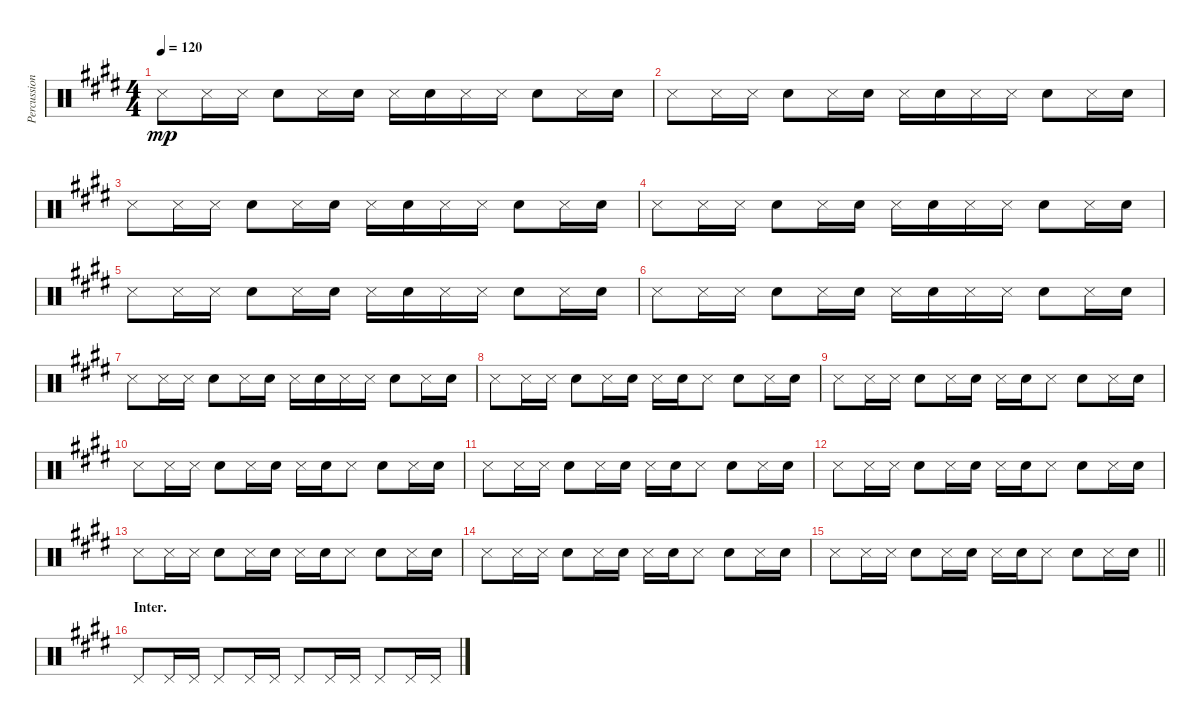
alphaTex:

\track ("Percussion (Tainaka Ritsu)" "Percussion") {instrument percussion}
\staff {score}
\articulation defaults
\ts (4 4)
\tempo 120
\clef neutral
\ks e "Snare (side stick) 3".8{dy mp} "Snare (side stick) 3".16 "Snare (side stick) 3".16 "Snare (hit) 2".8 "Snare (side stick) 3".16 "Snare (hit) 2".16 "Snare (side stick) 3".16 "Snare (hit) 2".16 "Snare (side stick) 3".16 "Snare (side stick) 3".16 "Snare (hit) 2".8 "Snare (side stick) 3".16 "Snare (hit) 2".16
|
"Snare (side stick) 3".8 "Snare (side stick) 3".16 "Snare (side stick) 3".16 "Snare (hit) 2".8 "Snare (side stick) 3".16 "Snare (hit) 2".16 "Snare (side stick) 3".16 "Snare (hit) 2".16 "Snare (side stick) 3".16 "Snare (side stick) 3".16 "Snare (hit) 2".8 "Snare (side stick) 3".16 "Snare (hit) 2".16 |
"Snare (side stick) 3".8 "Snare (side stick) 3".16 "Snare (side stick) 3".16 "Snare (hit) 2".8 "Snare (side stick) 3".16 "Snare (hit) 2".16 "Snare (side stick) 3".16 "Snare (hit) 2".16 "Snare (side stick) 3".16 "Snare (side stick) 3".16 "Snare (hit) 2".8 "Snare (side stick) 3".16 "Snare (hit) 2".16 |
"Snare (side stick) 3".8 "Snare (side stick) 3".16 "Snare (side stick) 3".16 "Snare (hit) 2".8 "Snare (side stick) 3".16 "Snare (hit) 2".16 "Snare (side stick) 3".16 "Snare (hit) 2".16 "Snare (side stick) 3".16 "Snare (side stick) 3".16 "Snare (hit) 2".8 "Snare (side stick) 3".16 "Snare (hit) 2".16 |
"Snare (side stick) 3".8 "Snare (side stick) 3".16 "Snare (side stick) 3".16 "Snare (hit) 2".8 "Snare (side stick) 3".16 "Snare (hit) 2".16 "Snare (side stick) 3".16 "Snare (hit) 2".16 "Snare (side stick) 3".16 "Snare (side stick) 3".16 "Snare (hit) 2".8 "Snare (side stick) 3".16 "Snare (hit) 2".16 |
"Snare (side stick) 3".8 "Snare (side stick) 3".16 "Snare (side stick) 3".16 "Snare (hit) 2".8 "Snare (side stick) 3".16 "Snare (hit) 2".16 "Snare (side stick) 3".16 "Snare (hit) 2".16 "Snare (side stick) 3".16 "Snare (side stick) 3".16 "Snare (hit) 2".8 "Snare (side stick) 3".16 "Snare (hit) 2".16 |
"Snare (side stick) 3".8 "Snare (side stick) 3".16 "Snare (side stick) 3".16 "Snare (hit) 2".8 "Snare (side stick) 3".16 "Snare (hit) 2".16 "Snare (side stick) 3".16 "Snare (hit) 2".16 "Snare (side stick) 3".16 "Snare (side stick) 3".16 "Snare (hit) 2".8 "Snare (side stick) 3".16 "Snare (hit) 2".16 |
"Snare (side stick) 3".8 "Snare (side stick) 3".16 "Snare (side stick) 3".16 "Snare (hit) 2".8 "Snare (side stick) 3".16 "Snare (hit) 2".16 "Snare (side stick) 3".16 "Snare (hit) 2".16 "Snare (side stick) 3".8 "Snare (hit) 2".8 "Snare (side stick) 3".16 "Snare (hit) 2".16 |
"Snare (side stick) 3".8 "Snare (side stick) 3".16 "Snare (side stick) 3".16 "Snare (hit) 2".8 "Snare (side stick) 3".16 "Snare (hit) 2".16 "Snare (side stick) 3".16 "Snare (hit) 2".16 "Snare (side stick) 3".8 "Snare (hit) 2".8 "Snare (side stick) 3".16 "Snare (hit) 2".16 |
"Snare (side stick) 3".8 "Snare (side stick) 3".16 "Snare (side stick) 3".16 "Snare (hit) 2".8 "Snare (side stick) 3".16 "Snare (hit) 2".16 "Snare (side stick) 3".16 "Snare (hit) 2".16 "Snare (side stick) 3".8 "Snare (hit) 2".8 "Snare (side stick) 3".16 "Snare (hit) 2".16 |
"Snare (side stick) 3".8 "Snare (side stick) 3".16 "Snare (side stick) 3".16 "Snare (hit) 2".8 "Snare (side stick) 3".16 "Snare (hit) 2".16 "Snare (side stick) 3".16 "Snare (hit) 2".16 "Snare (side stick) 3".8 "Snare (hit) 2".8 "Snare (side stick) 3".16 "Snare (hit) 2".16 |
"Snare (side stick) 3".8 "Snare (side stick) 3".16 "Snare (side stick) 3".16 "Snare (hit) 2".8 "Snare (side stick) 3".16 "Snare (hit) 2".16 "Snare (side stick) 3".16 "Snare (hit) 2".16 "Snare (side stick) 3".8 "Snare (hit) 2".8 "Snare (side stick) 3".16 "Snare (hit) 2".16 |
"Snare (side stick) 3".8 "Snare (side stick) 3".16 "Snare (side stick) 3".16 "Snare (hit) 2".8 "Snare (side stick) 3".16 "Snare (hit) 2".16 "Snare (side stick) 3".16 "Snare (hit) 2".16 "Snare (side stick) 3".8 "Snare (hit) 2".8 "Snare (side stick) 3".16 "Snare (hit) 2".16 |
"Snare (side stick) 3".8 "Snare (side stick) 3".16 "Snare (side stick) 3".16 "Snare (hit) 2".8 "Snare (side stick) 3".16 "Snare (hit) 2".16 "Snare (side stick) 3".16 "Snare (hit) 2".16 "Snare (side stick) 3".8 "Snare (hit) 2".8 "Snare (side stick) 3".16 "Snare (hit) 2".16 |
\barLineRight lightlight "Snare (side stick) 3".8 "Snare (side stick) 3".16 "Snare (side stick) 3".16 "Snare (hit) 2".8 "Snare (side stick) 3".16 "Snare (hit) 2".16 "Snare (side stick) 3".16 "Snare (hit) 2".16 "Snare (side stick) 3".8 "Snare (hit) 2".8 "Snare (side stick) 3".16 "Snare (hit) 2".16
|
\section ("" "Inter.")
"Pedal Hi-Hat (hit)".8 "Pedal Hi-Hat (hit)".16 "Pedal Hi-Hat (hit)".16 "Pedal Hi-Hat (hit)".8 "Pedal Hi-Hat (hit)".16 "Pedal Hi-Hat (hit)".16 "Pedal Hi-Hat (hit)".8 "Pedal Hi-Hat (hit)".16 "Pedal Hi-Hat (hit)".16 "Pedal Hi-Hat (hit)".8 "Pedal Hi-Hat (hit)".16 "Pedal Hi-Hat (hit)".16
